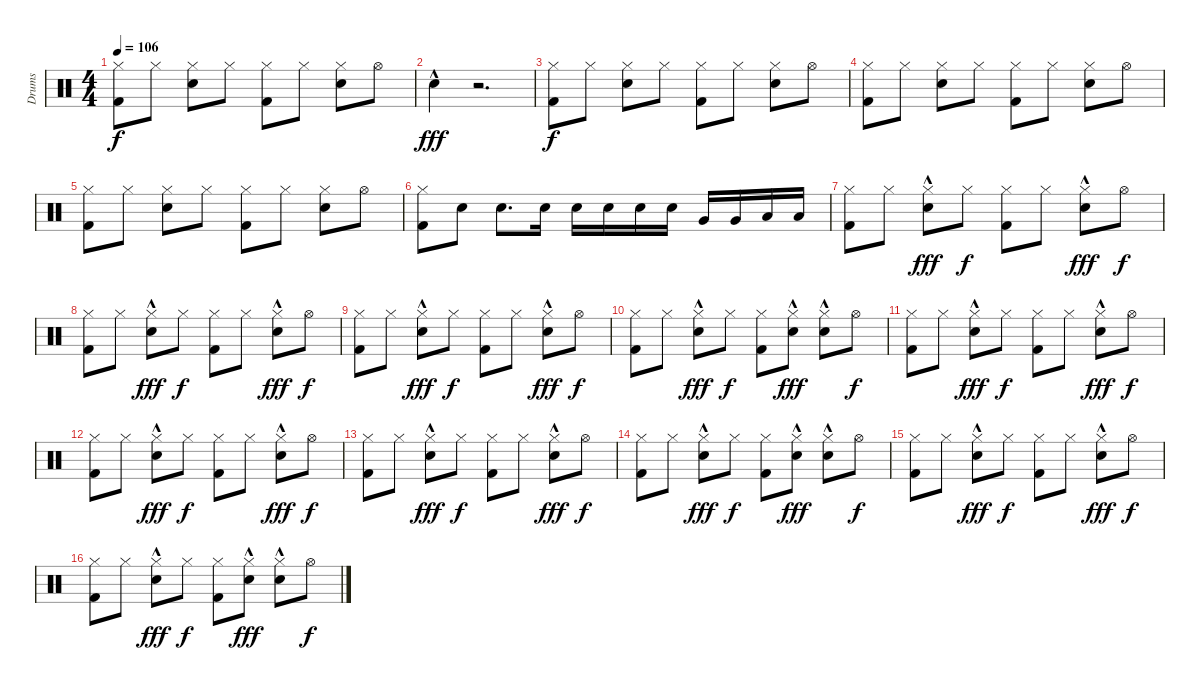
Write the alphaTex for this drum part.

\track ("Drums" "Drums") {instrument percussion}
\staff {score}
\articulation defaults
\ts (4 4)
\tempo 106
\clef neutral
\ks c
("Hi-Hat (closed)" "Kick (hit) 2").8{dy f} "Hi-Hat (closed)".8 ("Hi-Hat (closed)" "Snare (hit) 2").8 "Hi-Hat (closed)".8 ("Hi-Hat (closed)" "Kick (hit) 2").8 "Hi-Hat (closed)".8 ("Hi-Hat (closed)" "Snare (hit) 2").8 "Hi-Hat (open)".8 |
"Snare (hit) 2"{hac}.4{dy fff} r.2{d} |
("Hi-Hat (closed)" "Kick (hit) 2").8{dy f} "Hi-Hat (closed)".8 ("Hi-Hat (closed)" "Snare (hit) 2").8 "Hi-Hat (closed)".8 ("Hi-Hat (closed)" "Kick (hit) 2").8 "Hi-Hat (closed)".8 ("Hi-Hat (closed)" "Snare (hit) 2").8 "Hi-Hat (open)".8 |
("Hi-Hat (closed)" "Kick (hit) 2").8 "Hi-Hat (closed)".8 ("Hi-Hat (closed)" "Snare (hit) 2").8 "Hi-Hat (closed)".8 ("Hi-Hat (closed)" "Kick (hit) 2").8 "Hi-Hat (closed)".8 ("Hi-Hat (closed)" "Snare (hit) 2").8 "Hi-Hat (open)".8 |
("Hi-Hat (closed)" "Kick (hit) 2").8 "Hi-Hat (closed)".8 ("Hi-Hat (closed)" "Snare (hit) 2").8 "Hi-Hat (closed)".8 ("Hi-Hat (closed)" "Kick (hit) 2").8 "Hi-Hat (closed)".8 ("Hi-Hat (closed)" "Snare (hit) 2").8 "Hi-Hat (open)".8 |
("Hi-Hat (closed)" "Kick (hit) 2").8 "Snare (hit) 2".8 "Snare (hit) 2".8{d} "Snare (hit) 2".16 "Snare (hit) 2".16 "Snare (hit) 2".16 "Snare (hit) 2".16 "Snare (hit) 2".16 "Very Low Tom (hit)".16 "Very Low Tom (hit)".16 "Low Floor Tom (hit)".16 "Low Floor Tom (hit)".16 |
("Hi-Hat (closed)" "Kick (hit) 2").8 "Hi-Hat (closed)".8 ("Hi-Hat (closed)" "Hand Clap (hit)"{hac}).8{dy fff} "Hi-Hat (closed)".8{dy f} ("Hi-Hat (closed)" "Kick (hit) 2").8 "Hi-Hat (closed)".8 ("Hi-Hat (closed)" "Hand Clap (hit)"{hac}).8{dy fff} "Hi-Hat (open)".8{dy f} |
("Hi-Hat (closed)" "Kick (hit) 2").8 "Hi-Hat (closed)".8 ("Hi-Hat (closed)" "Hand Clap (hit)"{hac}).8{dy fff} "Hi-Hat (closed)".8{dy f} ("Hi-Hat (closed)" "Kick (hit) 2").8 "Hi-Hat (closed)".8 ("Hi-Hat (closed)" "Hand Clap (hit)"{hac}).8{dy fff} "Hi-Hat (open)".8{dy f} |
("Hi-Hat (closed)" "Kick (hit) 2").8 "Hi-Hat (closed)".8 ("Hi-Hat (closed)" "Hand Clap (hit)"{hac}).8{dy fff} "Hi-Hat (closed)".8{dy f} ("Hi-Hat (closed)" "Kick (hit) 2").8 "Hi-Hat (closed)".8 ("Hi-Hat (closed)" "Hand Clap (hit)"{hac}).8{dy fff} "Hi-Hat (open)".8{dy f} |
("Hi-Hat (closed)" "Kick (hit) 2").8 "Hi-Hat (closed)".8 ("Hi-Hat (closed)" "Hand Clap (hit)"{hac}).8{dy fff} "Hi-Hat (closed)".8{dy f} ("Hi-Hat (closed)" "Kick (hit) 2").8 ("Hi-Hat (closed)" "Hand Clap (hit)"{hac}).8{dy fff} ("Hi-Hat (closed)" "Hand Clap (hit)"{hac}).8 "Hi-Hat (open)".8{dy f} |
("Hi-Hat (closed)" "Kick (hit) 2").8 "Hi-Hat (closed)".8 ("Hi-Hat (closed)" "Hand Clap (hit)"{hac}).8{dy fff} "Hi-Hat (closed)".8{dy f} ("Hi-Hat (closed)" "Kick (hit) 2").8 "Hi-Hat (closed)".8 ("Hi-Hat (closed)" "Hand Clap (hit)"{hac}).8{dy fff} "Hi-Hat (open)".8{dy f} |
("Hi-Hat (closed)" "Kick (hit) 2").8 "Hi-Hat (closed)".8 ("Hi-Hat (closed)" "Hand Clap (hit)"{hac}).8{dy fff} "Hi-Hat (closed)".8{dy f} ("Hi-Hat (closed)" "Kick (hit) 2").8 "Hi-Hat (closed)".8 ("Hi-Hat (closed)" "Hand Clap (hit)"{hac}).8{dy fff} "Hi-Hat (open)".8{dy f} |
("Hi-Hat (closed)" "Kick (hit) 2").8 "Hi-Hat (closed)".8 ("Hi-Hat (closed)" "Hand Clap (hit)"{hac}).8{dy fff} "Hi-Hat (closed)".8{dy f} ("Hi-Hat (closed)" "Kick (hit) 2").8 "Hi-Hat (closed)".8 ("Hi-Hat (closed)" "Hand Clap (hit)"{hac}).8{dy fff} "Hi-Hat (open)".8{dy f} |
("Hi-Hat (closed)" "Kick (hit) 2").8 "Hi-Hat (closed)".8 ("Hi-Hat (closed)" "Hand Clap (hit)"{hac}).8{dy fff} "Hi-Hat (closed)".8{dy f} ("Hi-Hat (closed)" "Kick (hit) 2").8 ("Hi-Hat (closed)" "Hand Clap (hit)"{hac}).8{dy fff} ("Hi-Hat (closed)" "Hand Clap (hit)"{hac}).8 "Hi-Hat (open)".8{dy f} |
("Hi-Hat (closed)" "Kick (hit) 2").8 "Hi-Hat (closed)".8 ("Hi-Hat (closed)" "Hand Clap (hit)"{hac}).8{dy fff} "Hi-Hat (closed)".8{dy f} ("Hi-Hat (closed)" "Kick (hit) 2").8 "Hi-Hat (closed)".8 ("Hi-Hat (closed)" "Hand Clap (hit)"{hac}).8{dy fff} "Hi-Hat (open)".8{dy f} |
("Hi-Hat (closed)" "Kick (hit) 2").8 "Hi-Hat (closed)".8 ("Hi-Hat (closed)" "Hand Clap (hit)"{hac}).8{dy fff} "Hi-Hat (closed)".8{dy f} ("Hi-Hat (closed)" "Kick (hit) 2").8 ("Hi-Hat (closed)" "Hand Clap (hit)"{hac}).8{dy fff} ("Hi-Hat (closed)" "Hand Clap (hit)"{hac}).8 "Hi-Hat (open)".8{dy f}
